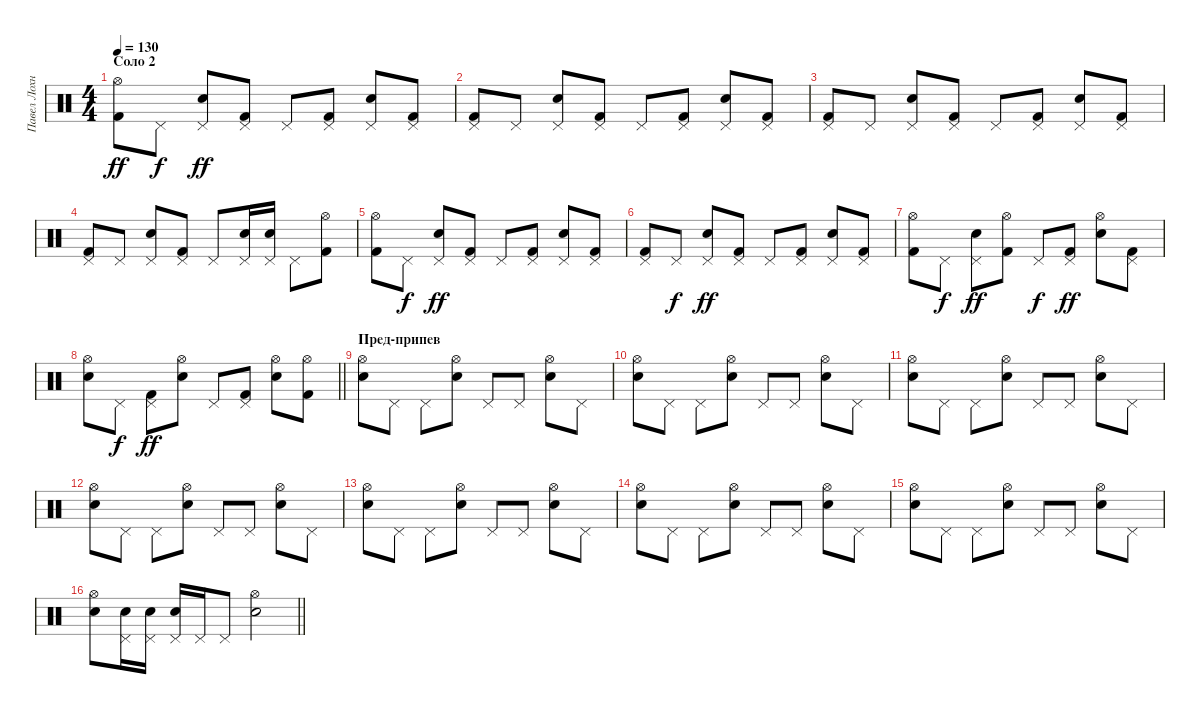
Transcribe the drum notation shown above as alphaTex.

\track ("Павел Лохнин" "Павел Лохн") {instrument percussion}
\staff {score}
\articulation defaults
\ts (4 4)
\section ("" "Соло 2")
\tempo 130
\clef neutral
\ks c
("Hi-Hat (open)" "Kick (hit) 2").8{dy ff} "Pedal Hi-Hat (hit)".8{dy f} ("Pedal Hi-Hat (hit)" "Electric Snare (hit)").8{dy ff} ("Pedal Hi-Hat (hit)" "Kick (hit) 2").8 "Pedal Hi-Hat (hit)".8 ("Pedal Hi-Hat (hit)" "Kick (hit) 2").8 ("Pedal Hi-Hat (hit)" "Electric Snare (hit)").8 ("Pedal Hi-Hat (hit)" "Kick (hit) 2").8 |
("Pedal Hi-Hat (hit)" "Kick (hit) 2").8 "Pedal Hi-Hat (hit)".8 ("Pedal Hi-Hat (hit)" "Electric Snare (hit)").8 ("Pedal Hi-Hat (hit)" "Kick (hit) 2").8 "Pedal Hi-Hat (hit)".8 ("Pedal Hi-Hat (hit)" "Kick (hit) 2").8 ("Pedal Hi-Hat (hit)" "Electric Snare (hit)").8 ("Pedal Hi-Hat (hit)" "Kick (hit) 2").8 |
("Pedal Hi-Hat (hit)" "Kick (hit) 2").8 "Pedal Hi-Hat (hit)".8 ("Pedal Hi-Hat (hit)" "Electric Snare (hit)").8 ("Pedal Hi-Hat (hit)" "Kick (hit) 2").8 "Pedal Hi-Hat (hit)".8 ("Pedal Hi-Hat (hit)" "Kick (hit) 2").8 ("Pedal Hi-Hat (hit)" "Electric Snare (hit)").8 ("Pedal Hi-Hat (hit)" "Kick (hit) 2").8 |
("Pedal Hi-Hat (hit)" "Kick (hit) 2").8 "Pedal Hi-Hat (hit)".8 ("Pedal Hi-Hat (hit)" "Electric Snare (hit)").8 ("Pedal Hi-Hat (hit)" "Kick (hit) 2").8 "Pedal Hi-Hat (hit)".8 ("Pedal Hi-Hat (hit)" "Electric Snare (hit)").16 ("Pedal Hi-Hat (hit)" "Electric Snare (hit)").16 "Pedal Hi-Hat (hit)".8 ("Hi-Hat (open)" "Kick (hit) 2").8 |
("Hi-Hat (open)" "Kick (hit) 2").8 "Pedal Hi-Hat (hit)".8{dy f} ("Pedal Hi-Hat (hit)" "Electric Snare (hit)").8{dy ff} ("Pedal Hi-Hat (hit)" "Kick (hit) 2").8 "Pedal Hi-Hat (hit)".8 ("Pedal Hi-Hat (hit)" "Kick (hit) 2").8 ("Pedal Hi-Hat (hit)" "Electric Snare (hit)").8 ("Pedal Hi-Hat (hit)" "Kick (hit) 2").8 |
("Pedal Hi-Hat (hit)" "Kick (hit) 2").8 "Pedal Hi-Hat (hit)".8{dy f} ("Pedal Hi-Hat (hit)" "Electric Snare (hit)").8{dy ff} ("Pedal Hi-Hat (hit)" "Kick (hit) 2").8 "Pedal Hi-Hat (hit)".8 ("Pedal Hi-Hat (hit)" "Kick (hit) 2").8 ("Pedal Hi-Hat (hit)" "Electric Snare (hit)").8 ("Pedal Hi-Hat (hit)" "Kick (hit) 2").8 |
("Hi-Hat (open)" "Kick (hit) 2").8 "Pedal Hi-Hat (hit)".8{dy f} ("Pedal Hi-Hat (hit)" "Electric Snare (hit)").8{dy ff} ("Hi-Hat (open)" "Kick (hit) 2").8 "Pedal Hi-Hat (hit)".8{dy f} ("Pedal Hi-Hat (hit)" "Kick (hit) 2").8{dy ff} ("Hi-Hat (open)" "Electric Snare (hit)").8 ("Pedal Hi-Hat (hit)" "Kick (hit) 2").8 |
\barLineRight lightlight
("Hi-Hat (open)" "Electric Snare (hit)").8 "Pedal Hi-Hat (hit)".8{dy f} ("Pedal Hi-Hat (hit)" "Kick (hit) 2").8{dy ff} ("Hi-Hat (open)" "Electric Snare (hit)").8 "Pedal Hi-Hat (hit)".8 ("Pedal Hi-Hat (hit)" "Kick (hit) 2").8 ("Hi-Hat (open)" "Electric Snare (hit)").8 ("Hi-Hat (open)" "Kick (hit) 2").8 |
\section ("" "Пред-припев")
("Hi-Hat (open)" "Electric Snare (hit)").8 "Pedal Hi-Hat (hit)".8 "Pedal Hi-Hat (hit)".8 ("Hi-Hat (open)" "Electric Snare (hit)").8 "Pedal Hi-Hat (hit)".8 "Pedal Hi-Hat (hit)".8 ("Hi-Hat (open)" "Electric Snare (hit)").8 "Pedal Hi-Hat (hit)".8 |
("Hi-Hat (open)" "Electric Snare (hit)").8 "Pedal Hi-Hat (hit)".8 "Pedal Hi-Hat (hit)".8 ("Hi-Hat (open)" "Electric Snare (hit)").8 "Pedal Hi-Hat (hit)".8 "Pedal Hi-Hat (hit)".8 ("Hi-Hat (open)" "Electric Snare (hit)").8 "Pedal Hi-Hat (hit)".8 |
("Hi-Hat (open)" "Electric Snare (hit)").8 "Pedal Hi-Hat (hit)".8 "Pedal Hi-Hat (hit)".8 ("Hi-Hat (open)" "Electric Snare (hit)").8 "Pedal Hi-Hat (hit)".8 "Pedal Hi-Hat (hit)".8 ("Hi-Hat (open)" "Electric Snare (hit)").8 "Pedal Hi-Hat (hit)".8 |
("Hi-Hat (open)" "Electric Snare (hit)").8 "Pedal Hi-Hat (hit)".8 "Pedal Hi-Hat (hit)".8 ("Hi-Hat (open)" "Electric Snare (hit)").8 "Pedal Hi-Hat (hit)".8 "Pedal Hi-Hat (hit)".8 ("Hi-Hat (open)" "Electric Snare (hit)").8 "Pedal Hi-Hat (hit)".8 |
("Hi-Hat (open)" "Electric Snare (hit)").8 "Pedal Hi-Hat (hit)".8 "Pedal Hi-Hat (hit)".8 ("Hi-Hat (open)" "Electric Snare (hit)").8 "Pedal Hi-Hat (hit)".8 "Pedal Hi-Hat (hit)".8 ("Hi-Hat (open)" "Electric Snare (hit)").8 "Pedal Hi-Hat (hit)".8 |
("Hi-Hat (open)" "Electric Snare (hit)").8 "Pedal Hi-Hat (hit)".8 "Pedal Hi-Hat (hit)".8 ("Hi-Hat (open)" "Electric Snare (hit)").8 "Pedal Hi-Hat (hit)".8 "Pedal Hi-Hat (hit)".8 ("Hi-Hat (open)" "Electric Snare (hit)").8 "Pedal Hi-Hat (hit)".8 |
("Hi-Hat (open)" "Electric Snare (hit)").8 "Pedal Hi-Hat (hit)".8 "Pedal Hi-Hat (hit)".8 ("Hi-Hat (open)" "Electric Snare (hit)").8 "Pedal Hi-Hat (hit)".8 "Pedal Hi-Hat (hit)".8 ("Hi-Hat (open)" "Electric Snare (hit)").8 "Pedal Hi-Hat (hit)".8 |
\barLineRight lightlight
("Hi-Hat (open)" "Electric Snare (hit)").8 ("Pedal Hi-Hat (hit)" "Electric Snare (hit)").16 ("Pedal Hi-Hat (hit)" "Electric Snare (hit)").16 ("Pedal Hi-Hat (hit)" "Electric Snare (hit)").16 "Pedal Hi-Hat (hit)".16 "Pedal Hi-Hat (hit)".8 ("Hi-Hat (open)" "Electric Snare (hit)").2
